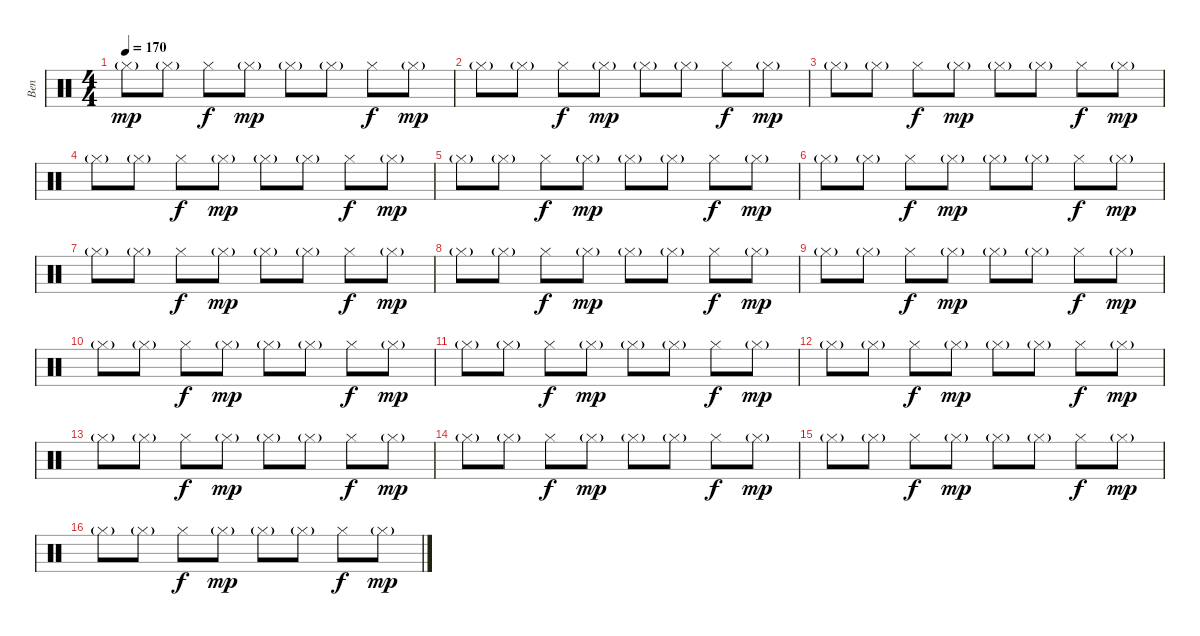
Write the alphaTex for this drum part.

\track ("Ben" "Ben") {instrument percussion}
\staff {score}
\articulation defaults
\ts (4 4)
\tempo 170
\clef neutral
\ks c "Hi-Hat (closed)"{g}.8{dy mp} "Hi-Hat (closed)"{g}.8 "Hi-Hat (closed)".8{dy f} "Hi-Hat (closed)"{g}.8{dy mp} "Hi-Hat (closed)"{g}.8 "Hi-Hat (closed)"{g}.8 "Hi-Hat (closed)".8{dy f} "Hi-Hat (closed)"{g}.8{dy mp}
|
"Hi-Hat (closed)"{g}.8 "Hi-Hat (closed)"{g}.8 "Hi-Hat (closed)".8{dy f} "Hi-Hat (closed)"{g}.8{dy mp} "Hi-Hat (closed)"{g}.8 "Hi-Hat (closed)"{g}.8 "Hi-Hat (closed)".8{dy f} "Hi-Hat (closed)"{g}.8{dy mp} |
"Hi-Hat (closed)"{g}.8 "Hi-Hat (closed)"{g}.8 "Hi-Hat (closed)".8{dy f} "Hi-Hat (closed)"{g}.8{dy mp} "Hi-Hat (closed)"{g}.8 "Hi-Hat (closed)"{g}.8 "Hi-Hat (closed)".8{dy f} "Hi-Hat (closed)"{g}.8{dy mp} |
"Hi-Hat (closed)"{g}.8 "Hi-Hat (closed)"{g}.8 "Hi-Hat (closed)".8{dy f} "Hi-Hat (closed)"{g}.8{dy mp} "Hi-Hat (closed)"{g}.8 "Hi-Hat (closed)"{g}.8 "Hi-Hat (closed)".8{dy f} "Hi-Hat (closed)"{g}.8{dy mp} |
"Hi-Hat (closed)"{g}.8 "Hi-Hat (closed)"{g}.8 "Hi-Hat (closed)".8{dy f} "Hi-Hat (closed)"{g}.8{dy mp} "Hi-Hat (closed)"{g}.8 "Hi-Hat (closed)"{g}.8 "Hi-Hat (closed)".8{dy f} "Hi-Hat (closed)"{g}.8{dy mp} |
"Hi-Hat (closed)"{g}.8 "Hi-Hat (closed)"{g}.8 "Hi-Hat (closed)".8{dy f} "Hi-Hat (closed)"{g}.8{dy mp} "Hi-Hat (closed)"{g}.8 "Hi-Hat (closed)"{g}.8 "Hi-Hat (closed)".8{dy f} "Hi-Hat (closed)"{g}.8{dy mp} |
"Hi-Hat (closed)"{g}.8 "Hi-Hat (closed)"{g}.8 "Hi-Hat (closed)".8{dy f} "Hi-Hat (closed)"{g}.8{dy mp} "Hi-Hat (closed)"{g}.8 "Hi-Hat (closed)"{g}.8 "Hi-Hat (closed)".8{dy f} "Hi-Hat (closed)"{g}.8{dy mp} |
"Hi-Hat (closed)"{g}.8 "Hi-Hat (closed)"{g}.8 "Hi-Hat (closed)".8{dy f} "Hi-Hat (closed)"{g}.8{dy mp} "Hi-Hat (closed)"{g}.8 "Hi-Hat (closed)"{g}.8 "Hi-Hat (closed)".8{dy f} "Hi-Hat (closed)"{g}.8{dy mp} |
"Hi-Hat (closed)"{g}.8 "Hi-Hat (closed)"{g}.8 "Hi-Hat (closed)".8{dy f} "Hi-Hat (closed)"{g}.8{dy mp} "Hi-Hat (closed)"{g}.8 "Hi-Hat (closed)"{g}.8 "Hi-Hat (closed)".8{dy f} "Hi-Hat (closed)"{g}.8{dy mp} |
"Hi-Hat (closed)"{g}.8 "Hi-Hat (closed)"{g}.8 "Hi-Hat (closed)".8{dy f} "Hi-Hat (closed)"{g}.8{dy mp} "Hi-Hat (closed)"{g}.8 "Hi-Hat (closed)"{g}.8 "Hi-Hat (closed)".8{dy f} "Hi-Hat (closed)"{g}.8{dy mp} |
"Hi-Hat (closed)"{g}.8 "Hi-Hat (closed)"{g}.8 "Hi-Hat (closed)".8{dy f} "Hi-Hat (closed)"{g}.8{dy mp} "Hi-Hat (closed)"{g}.8 "Hi-Hat (closed)"{g}.8 "Hi-Hat (closed)".8{dy f} "Hi-Hat (closed)"{g}.8{dy mp} |
"Hi-Hat (closed)"{g}.8 "Hi-Hat (closed)"{g}.8 "Hi-Hat (closed)".8{dy f} "Hi-Hat (closed)"{g}.8{dy mp} "Hi-Hat (closed)"{g}.8 "Hi-Hat (closed)"{g}.8 "Hi-Hat (closed)".8{dy f} "Hi-Hat (closed)"{g}.8{dy mp} |
"Hi-Hat (closed)"{g}.8 "Hi-Hat (closed)"{g}.8 "Hi-Hat (closed)".8{dy f} "Hi-Hat (closed)"{g}.8{dy mp} "Hi-Hat (closed)"{g}.8 "Hi-Hat (closed)"{g}.8 "Hi-Hat (closed)".8{dy f} "Hi-Hat (closed)"{g}.8{dy mp} |
"Hi-Hat (closed)"{g}.8 "Hi-Hat (closed)"{g}.8 "Hi-Hat (closed)".8{dy f} "Hi-Hat (closed)"{g}.8{dy mp} "Hi-Hat (closed)"{g}.8 "Hi-Hat (closed)"{g}.8 "Hi-Hat (closed)".8{dy f} "Hi-Hat (closed)"{g}.8{dy mp} |
"Hi-Hat (closed)"{g}.8 "Hi-Hat (closed)"{g}.8 "Hi-Hat (closed)".8{dy f} "Hi-Hat (closed)"{g}.8{dy mp} "Hi-Hat (closed)"{g}.8 "Hi-Hat (closed)"{g}.8 "Hi-Hat (closed)".8{dy f} "Hi-Hat (closed)"{g}.8{dy mp} |
"Hi-Hat (closed)"{g}.8 "Hi-Hat (closed)"{g}.8 "Hi-Hat (closed)".8{dy f} "Hi-Hat (closed)"{g}.8{dy mp} "Hi-Hat (closed)"{g}.8 "Hi-Hat (closed)"{g}.8 "Hi-Hat (closed)".8{dy f} "Hi-Hat (closed)"{g}.8{dy mp}
